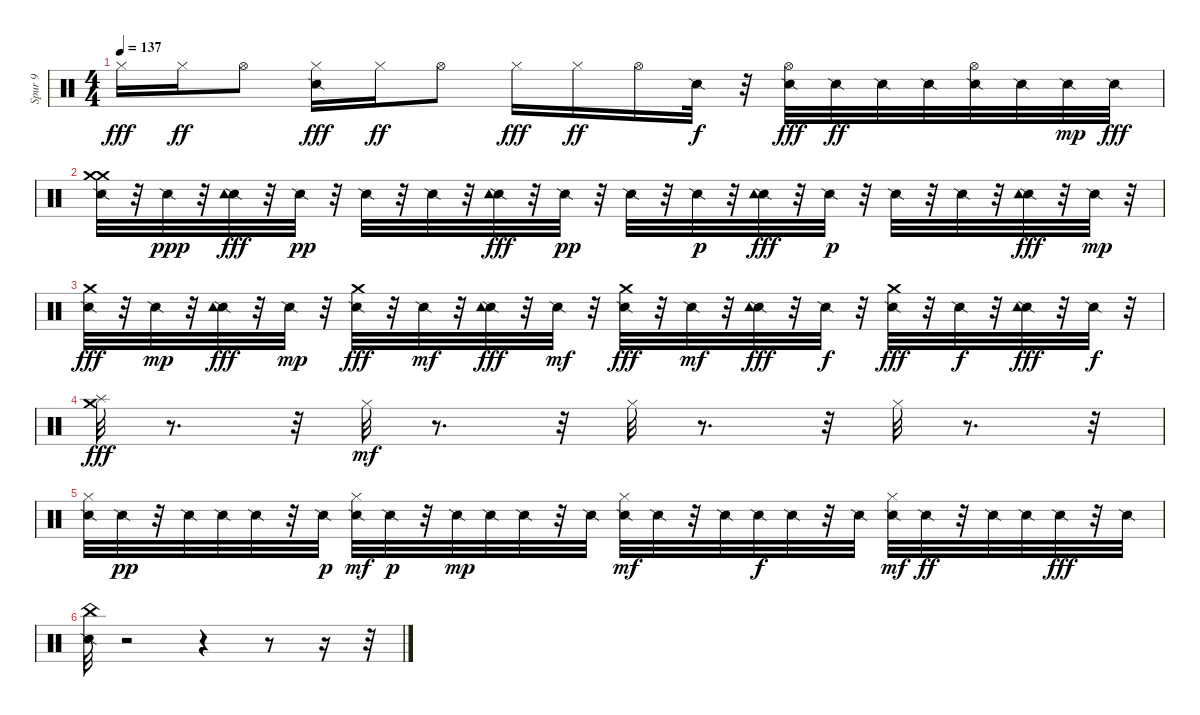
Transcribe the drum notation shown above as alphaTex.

\track ("Spur 9" "Spur 9") {instrument percussion}
\staff {score}
\articulation defaults
\ts (4 4)
\tempo 137
\clef neutral
\ks c "Hi-Hat (closed)".16{dy fff} "Hi-Hat (closed)".16{dy ff} "Hi-Hat (open)".8
("Snare (side stick) 2" "Hi-Hat (closed)").16{dy fff} "Hi-Hat (closed)".16{dy ff} "Hi-Hat (open)".8 "Hi-Hat (closed)".16{dy fff} "Hi-Hat (closed)".16{dy ff} "Hi-Hat (open)".16 "Snare (side stick) 2".32{dy f} r.32 ("Snare (side stick) 2" "Hi-Hat (open)").32{dy fff} "Snare (side stick) 2".32{dy ff} "Snare (side stick) 2".32 "Snare (side stick) 2".32 ("Snare (side stick) 2" "Hi-Hat (open)").32 "Snare (side stick) 2".32 "Snare (side stick) 2".32{dy mp} "Snare (side stick) 2".32{dy fff} |
("Crash medium (hit)" "Snare (side stick) 2" "Crash medium (hit)").32 r.32 "Snare (side stick) 2".32{dy ppp} r.32 ("Snare (side stick) 2" "Tambourine (hit)").32{dy fff} r.32 "Snare (side stick) 2".32{dy pp} r.32 "Snare (side stick) 2".32 r.32 "Snare (side stick) 2".32 r.32 ("Snare (side stick) 2" "Tambourine (hit)").32{dy fff} r.32 "Snare (side stick) 2".32{dy pp} r.32 "Snare (side stick) 2".32 r.32 "Snare (side stick) 2".32{dy p} r.32 ("Snare (side stick) 2" "Tambourine (hit)").32{dy fff} r.32 "Snare (side stick) 2".32{dy p} r.32 "Snare (side stick) 2".32 r.32 "Snare (side stick) 2".32 r.32 ("Snare (side stick) 2" "Tambourine (hit)").32{dy fff} r.32 "Snare (side stick) 2".32{dy mp} r.32 |
("Snare (side stick) 2" "Crash medium (hit)").32{dy fff} r.32 "Snare (side stick) 2".32{dy mp} r.32 ("Snare (side stick) 2" "Tambourine (hit)").32{dy fff} r.32 "Snare (side stick) 2".32{dy mp} r.32 ("Snare (side stick) 2" "Crash medium (hit)").32{dy fff} r.32 "Snare (side stick) 2".32{dy mf} r.32 ("Snare (side stick) 2" "Tambourine (hit)").32{dy fff} r.32 "Snare (side stick) 2".32{dy mf} r.32 ("Snare (side stick) 2" "Crash medium (hit)").32{dy fff} r.32 "Snare (side stick) 2".32{dy mf} r.32 ("Snare (side stick) 2" "Tambourine (hit)").32{dy fff} r.32 "Snare (side stick) 2".32{dy f} r.32 ("Snare (side stick) 2" "Crash medium (hit)").32{dy fff} r.32 "Snare (side stick) 2".32{dy f} r.32 ("Snare (side stick) 2" "Tambourine (hit)").32{dy fff} r.32 "Snare (side stick) 2".32{dy f} r.32 |
("Splash (hit)" "Crash medium (hit)").32{dy fff} r.8{d} r.32 "Hi-Hat (closed)".32{dy mf} r.8{d} r.32 "Hi-Hat (closed)".32 r.8{d} r.32 "Hi-Hat (closed)".32 r.8{d} r.32 |
("Snare (side stick) 2" "Hi-Hat (closed)").32 "Snare (side stick) 2".32{dy pp} r.32 "Snare (side stick) 2".32 "Snare (side stick) 2".32 "Snare (side stick) 2".32 r.32 "Snare (side stick) 2".32{dy p} ("Snare (side stick) 2" "Hi-Hat (closed)").32{dy mf} "Snare (side stick) 2".32{dy p} r.32 "Snare (side stick) 2".32{dy mp} "Snare (side stick) 2".32 "Snare (side stick) 2".32 r.32 "Snare (side stick) 2".32 ("Snare (side stick) 2" "Hi-Hat (closed)").32{dy mf} "Snare (side stick) 2".32 r.32 "Snare (side stick) 2".32 "Snare (side stick) 2".32{dy f} "Snare (side stick) 2".32 r.32 "Snare (side stick) 2".32 ("Snare (side stick) 2" "Hi-Hat (closed)").32{dy mf} "Snare (side stick) 2".32{dy ff} r.32 "Snare (side stick) 2".32 "Snare (side stick) 2".32 "Snare (side stick) 2".32{dy fff} r.32 "Snare (side stick) 2".32 |
("Snare (side stick) 2" "China (hit)").32 r.2 r.4 r.8 r.16 r.32
